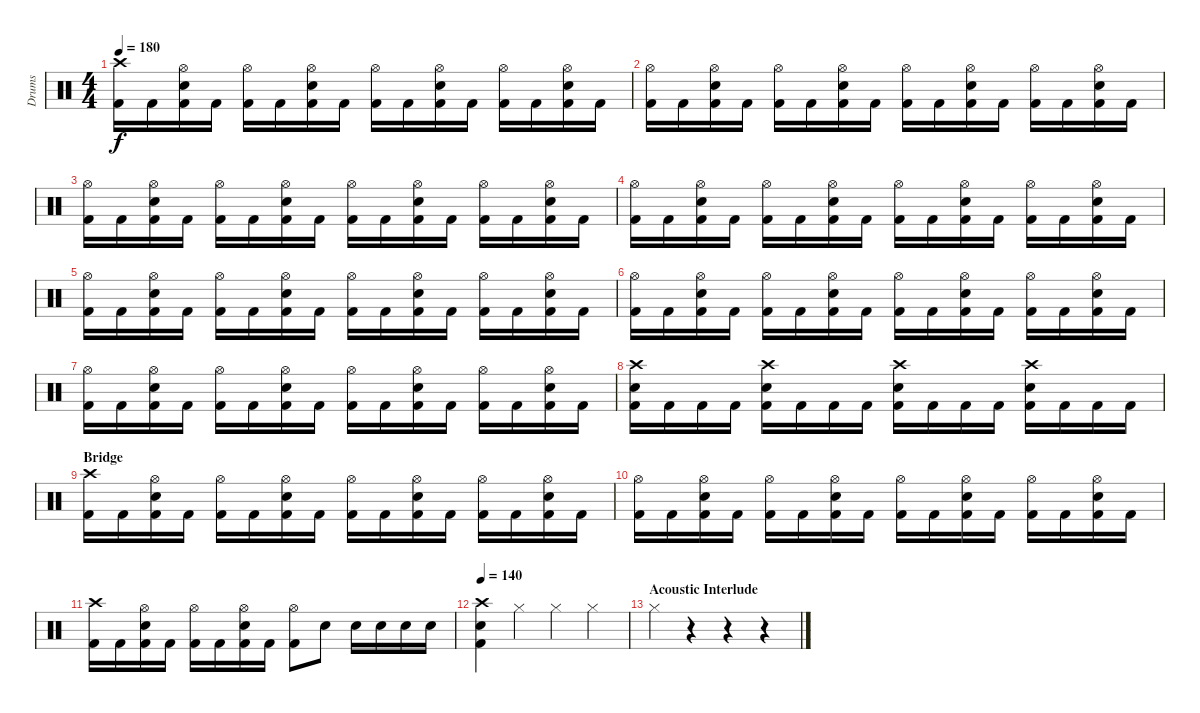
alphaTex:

\track ("Drums" "Drums") {instrument percussion}
\staff {score}
\articulation defaults
\ts (4 4)
\tempo 180
\clef neutral
\ks c
("Crash high (hit)" "Kick (hit) 2").16{dy f} "Kick (hit) 2".16 ("Hi-Hat (open)" "Snare (hit) 2" "Kick (hit) 2").16 "Kick (hit) 2".16 ("Hi-Hat (open)" "Kick (hit) 2").16 "Kick (hit) 2".16 ("Hi-Hat (open)" "Snare (hit) 2" "Kick (hit) 2").16 "Kick (hit) 2".16 ("Hi-Hat (open)" "Kick (hit) 2").16 "Kick (hit) 2".16 ("Hi-Hat (open)" "Snare (hit) 2" "Kick (hit) 2").16 "Kick (hit) 2".16 ("Hi-Hat (open)" "Kick (hit) 2").16 "Kick (hit) 2".16 ("Hi-Hat (open)" "Snare (hit) 2" "Kick (hit) 2").16 "Kick (hit) 2".16 |
("Hi-Hat (open)" "Kick (hit) 2").16 "Kick (hit) 2".16 ("Hi-Hat (open)" "Snare (hit) 2" "Kick (hit) 2").16 "Kick (hit) 2".16 ("Hi-Hat (open)" "Kick (hit) 2").16 "Kick (hit) 2".16 ("Hi-Hat (open)" "Snare (hit) 2" "Kick (hit) 2").16 "Kick (hit) 2".16 ("Hi-Hat (open)" "Kick (hit) 2").16 "Kick (hit) 2".16 ("Hi-Hat (open)" "Snare (hit) 2" "Kick (hit) 2").16 "Kick (hit) 2".16 ("Hi-Hat (open)" "Kick (hit) 2").16 "Kick (hit) 2".16 ("Hi-Hat (open)" "Snare (hit) 2" "Kick (hit) 2").16 "Kick (hit) 2".16 |
("Hi-Hat (open)" "Kick (hit) 2").16 "Kick (hit) 2".16 ("Hi-Hat (open)" "Snare (hit) 2" "Kick (hit) 2").16 "Kick (hit) 2".16 ("Hi-Hat (open)" "Kick (hit) 2").16 "Kick (hit) 2".16 ("Hi-Hat (open)" "Snare (hit) 2" "Kick (hit) 2").16 "Kick (hit) 2".16 ("Hi-Hat (open)" "Kick (hit) 2").16 "Kick (hit) 2".16 ("Hi-Hat (open)" "Snare (hit) 2" "Kick (hit) 2").16 "Kick (hit) 2".16 ("Hi-Hat (open)" "Kick (hit) 2").16 "Kick (hit) 2".16 ("Hi-Hat (open)" "Snare (hit) 2" "Kick (hit) 2").16 "Kick (hit) 2".16 |
("Hi-Hat (open)" "Kick (hit) 2").16 "Kick (hit) 2".16 ("Hi-Hat (open)" "Snare (hit) 2" "Kick (hit) 2").16 "Kick (hit) 2".16 ("Hi-Hat (open)" "Kick (hit) 2").16 "Kick (hit) 2".16 ("Hi-Hat (open)" "Snare (hit) 2" "Kick (hit) 2").16 "Kick (hit) 2".16 ("Hi-Hat (open)" "Kick (hit) 2").16 "Kick (hit) 2".16 ("Hi-Hat (open)" "Snare (hit) 2" "Kick (hit) 2").16 "Kick (hit) 2".16 ("Hi-Hat (open)" "Kick (hit) 2").16 "Kick (hit) 2".16 ("Hi-Hat (open)" "Snare (hit) 2" "Kick (hit) 2").16 "Kick (hit) 2".16 |
("Hi-Hat (open)" "Kick (hit) 2").16 "Kick (hit) 2".16 ("Hi-Hat (open)" "Snare (hit) 2" "Kick (hit) 2").16 "Kick (hit) 2".16 ("Hi-Hat (open)" "Kick (hit) 2").16 "Kick (hit) 2".16 ("Hi-Hat (open)" "Snare (hit) 2" "Kick (hit) 2").16 "Kick (hit) 2".16 ("Hi-Hat (open)" "Kick (hit) 2").16 "Kick (hit) 2".16 ("Hi-Hat (open)" "Snare (hit) 2" "Kick (hit) 2").16 "Kick (hit) 2".16 ("Hi-Hat (open)" "Kick (hit) 2").16 "Kick (hit) 2".16 ("Hi-Hat (open)" "Snare (hit) 2" "Kick (hit) 2").16 "Kick (hit) 2".16 |
("Hi-Hat (open)" "Kick (hit) 2").16 "Kick (hit) 2".16 ("Hi-Hat (open)" "Snare (hit) 2" "Kick (hit) 2").16 "Kick (hit) 2".16 ("Hi-Hat (open)" "Kick (hit) 2").16 "Kick (hit) 2".16 ("Hi-Hat (open)" "Snare (hit) 2" "Kick (hit) 2").16 "Kick (hit) 2".16 ("Hi-Hat (open)" "Kick (hit) 2").16 "Kick (hit) 2".16 ("Hi-Hat (open)" "Snare (hit) 2" "Kick (hit) 2").16 "Kick (hit) 2".16 ("Hi-Hat (open)" "Kick (hit) 2").16 "Kick (hit) 2".16 ("Hi-Hat (open)" "Snare (hit) 2" "Kick (hit) 2").16 "Kick (hit) 2".16 |
("Hi-Hat (open)" "Kick (hit) 2").16 "Kick (hit) 2".16 ("Hi-Hat (open)" "Snare (hit) 2" "Kick (hit) 2").16 "Kick (hit) 2".16 ("Hi-Hat (open)" "Kick (hit) 2").16 "Kick (hit) 2".16 ("Hi-Hat (open)" "Snare (hit) 2" "Kick (hit) 2").16 "Kick (hit) 2".16 ("Hi-Hat (open)" "Kick (hit) 2").16 "Kick (hit) 2".16 ("Hi-Hat (open)" "Snare (hit) 2" "Kick (hit) 2").16 "Kick (hit) 2".16 ("Hi-Hat (open)" "Kick (hit) 2").16 "Kick (hit) 2".16 ("Hi-Hat (open)" "Snare (hit) 2" "Kick (hit) 2").16 "Kick (hit) 2".16 |
("Crash high (hit)" "Snare (hit) 2" "Kick (hit) 2").16 "Kick (hit) 2".16 "Kick (hit) 2".16 "Kick (hit) 2".16 ("Crash high (hit)" "Snare (hit) 2" "Kick (hit) 2").16 "Kick (hit) 2".16 "Kick (hit) 2".16 "Kick (hit) 2".16 ("Crash high (hit)" "Snare (hit) 2" "Kick (hit) 2").16 "Kick (hit) 2".16 "Kick (hit) 2".16 "Kick (hit) 2".16 ("Crash high (hit)" "Snare (hit) 2" "Kick (hit) 2").16 "Kick (hit) 2".16 "Kick (hit) 2".16 "Kick (hit) 2".16 |
\section ("" "Bridge")
("Crash high (hit)" "Kick (hit) 2").16 "Kick (hit) 2".16 ("Hi-Hat (open)" "Snare (hit) 2" "Kick (hit) 2").16 "Kick (hit) 2".16 ("Hi-Hat (open)" "Kick (hit) 2").16 "Kick (hit) 2".16 ("Hi-Hat (open)" "Snare (hit) 2" "Kick (hit) 2").16 "Kick (hit) 2".16 ("Hi-Hat (open)" "Kick (hit) 2").16 "Kick (hit) 2".16 ("Hi-Hat (open)" "Snare (hit) 2" "Kick (hit) 2").16 "Kick (hit) 2".16 ("Hi-Hat (open)" "Kick (hit) 2").16 "Kick (hit) 2".16 ("Hi-Hat (open)" "Snare (hit) 2" "Kick (hit) 2").16 "Kick (hit) 2".16 |
("Hi-Hat (open)" "Kick (hit) 2").16 "Kick (hit) 2".16 ("Hi-Hat (open)" "Snare (hit) 2" "Kick (hit) 2").16 "Kick (hit) 2".16 ("Hi-Hat (open)" "Kick (hit) 2").16 "Kick (hit) 2".16 ("Hi-Hat (open)" "Snare (hit) 2" "Kick (hit) 2").16 "Kick (hit) 2".16 ("Hi-Hat (open)" "Kick (hit) 2").16 "Kick (hit) 2".16 ("Hi-Hat (open)" "Snare (hit) 2" "Kick (hit) 2").16 "Kick (hit) 2".16 ("Hi-Hat (open)" "Kick (hit) 2").16 "Kick (hit) 2".16 ("Hi-Hat (open)" "Snare (hit) 2" "Kick (hit) 2").16 "Kick (hit) 2".16 |
("Crash high (hit)" "Kick (hit) 2").16 "Kick (hit) 2".16 ("Hi-Hat (open)" "Snare (hit) 2" "Kick (hit) 2").16 "Kick (hit) 2".16 ("Hi-Hat (open)" "Kick (hit) 2").16 "Kick (hit) 2".16 ("Hi-Hat (open)" "Snare (hit) 2" "Kick (hit) 2").16 "Kick (hit) 2".16 ("Hi-Hat (open)" "Kick (hit) 2").8 "Snare (hit) 2".8 "Snare (hit) 2".16 "Snare (hit) 2".16 "Snare (hit) 2".16 "Snare (hit) 2".16 |
\tempo 140
("Crash high (hit)" "Snare (hit) 2" "Kick (hit) 2").4 "Hi-Hat (closed)".4 "Hi-Hat (closed)".4 "Hi-Hat (closed)".4 |
\section ("" "Acoustic Interlude")
"Hi-Hat (closed)".4 r.4 r.4 r.4
